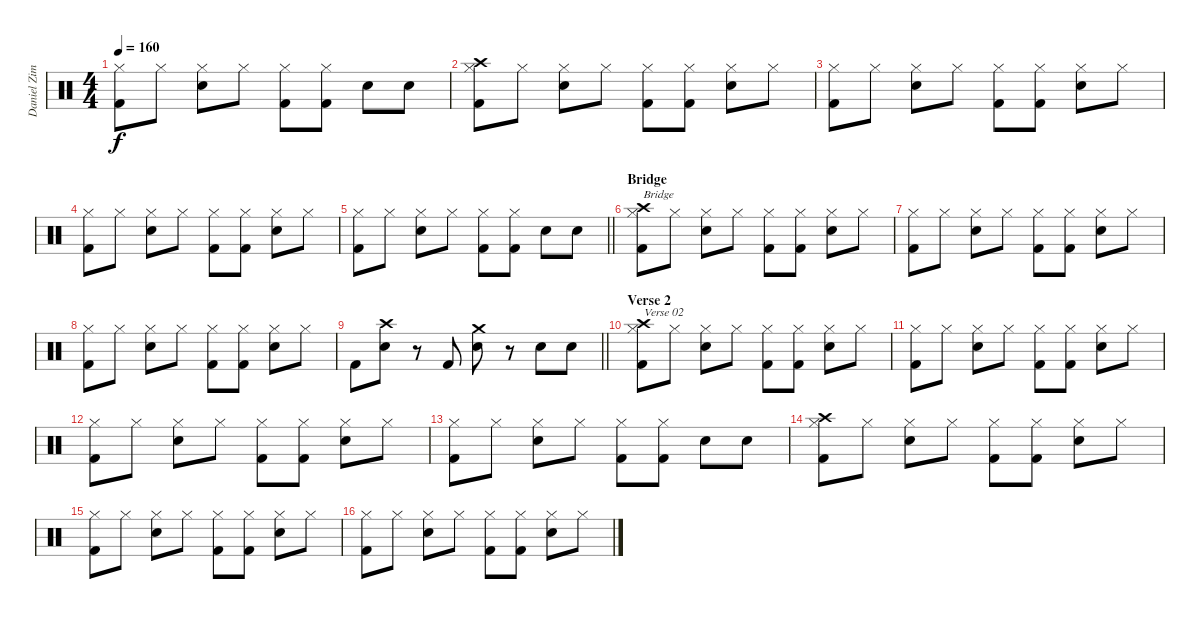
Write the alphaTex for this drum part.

\track ("Daniel Zimmermann" "Daniel Zim") {instrument percussion}
\staff {score}
\articulation defaults
\ts (4 4)
\tempo 160
\clef neutral
\ks c
("Hi-Hat (closed)" "Kick (hit) 2").8{dy f} "Hi-Hat (closed)".8 ("Hi-Hat (closed)" "Snare (hit) 2").8 "Hi-Hat (closed)".8 ("Hi-Hat (closed)" "Kick (hit) 2").8 ("Hi-Hat (closed)" "Kick (hit) 2").8 "Snare (hit) 2".8 "Snare (hit) 2".8 |
("Hi-Hat (closed)" "Kick (hit) 2" "Crash high (hit)").8 "Hi-Hat (closed)".8 ("Hi-Hat (closed)" "Snare (hit) 2").8 "Hi-Hat (closed)".8 ("Hi-Hat (closed)" "Kick (hit) 2").8 ("Hi-Hat (closed)" "Kick (hit) 2").8 ("Hi-Hat (closed)" "Snare (hit) 2").8 "Hi-Hat (closed)".8 |
("Hi-Hat (closed)" "Kick (hit) 2").8 "Hi-Hat (closed)".8 ("Hi-Hat (closed)" "Snare (hit) 2").8 "Hi-Hat (closed)".8 ("Hi-Hat (closed)" "Kick (hit) 2").8 ("Hi-Hat (closed)" "Kick (hit) 2").8 ("Hi-Hat (closed)" "Snare (hit) 2").8 "Hi-Hat (closed)".8 |
("Hi-Hat (closed)" "Kick (hit) 2").8 "Hi-Hat (closed)".8 ("Hi-Hat (closed)" "Snare (hit) 2").8 "Hi-Hat (closed)".8 ("Hi-Hat (closed)" "Kick (hit) 2").8 ("Hi-Hat (closed)" "Kick (hit) 2").8 ("Hi-Hat (closed)" "Snare (hit) 2").8 "Hi-Hat (closed)".8 |
\barLineRight lightlight
("Hi-Hat (closed)" "Kick (hit) 2").8 "Hi-Hat (closed)".8 ("Hi-Hat (closed)" "Snare (hit) 2").8 "Hi-Hat (closed)".8 ("Hi-Hat (closed)" "Kick (hit) 2").8 ("Hi-Hat (closed)" "Kick (hit) 2").8 "Snare (hit) 2".8 "Snare (hit) 2".8 |
\section ("" "Bridge")
("Hi-Hat (closed)" "Kick (hit) 2" "Crash high (hit)").8{txt "Bridge"} "Hi-Hat (closed)".8 ("Hi-Hat (closed)" "Snare (hit) 2").8 "Hi-Hat (closed)".8 ("Hi-Hat (closed)" "Kick (hit) 2").8 ("Hi-Hat (closed)" "Kick (hit) 2").8 ("Hi-Hat (closed)" "Snare (hit) 2").8 "Hi-Hat (closed)".8 |
("Hi-Hat (closed)" "Kick (hit) 2").8 "Hi-Hat (closed)".8 ("Hi-Hat (closed)" "Snare (hit) 2").8 "Hi-Hat (closed)".8 ("Hi-Hat (closed)" "Kick (hit) 2").8 ("Hi-Hat (closed)" "Kick (hit) 2").8 ("Hi-Hat (closed)" "Snare (hit) 2").8 "Hi-Hat (closed)".8 |
("Hi-Hat (closed)" "Kick (hit) 2").8 "Hi-Hat (closed)".8 ("Hi-Hat (closed)" "Snare (hit) 2").8 "Hi-Hat (closed)".8 ("Hi-Hat (closed)" "Kick (hit) 2").8 ("Hi-Hat (closed)" "Kick (hit) 2").8 ("Hi-Hat (closed)" "Snare (hit) 2").8 "Hi-Hat (closed)".8 |
\barLineRight lightlight "Kick (hit) 2".8
("Snare (hit) 2" "Crash high (hit)").8 r.8 "Kick (hit) 2".8 ("Snare (hit) 2" "Crash medium (hit)").8 r.8 "Snare (hit) 2".8 "Snare (hit) 2".8 |
\section ("" "Verse 2")
("Hi-Hat (closed)" "Kick (hit) 2" "Crash high (hit)").8{txt "Verse 02"} "Hi-Hat (closed)".8 ("Hi-Hat (closed)" "Snare (hit) 2").8 "Hi-Hat (closed)".8 ("Hi-Hat (closed)" "Kick (hit) 2").8 ("Hi-Hat (closed)" "Kick (hit) 2").8 ("Hi-Hat (closed)" "Snare (hit) 2").8 "Hi-Hat (closed)".8 |
("Hi-Hat (closed)" "Kick (hit) 2").8 "Hi-Hat (closed)".8 ("Hi-Hat (closed)" "Snare (hit) 2").8 "Hi-Hat (closed)".8 ("Hi-Hat (closed)" "Kick (hit) 2").8 ("Hi-Hat (closed)" "Kick (hit) 2").8 ("Hi-Hat (closed)" "Snare (hit) 2").8 "Hi-Hat (closed)".8 |
("Hi-Hat (closed)" "Kick (hit) 2").8 "Hi-Hat (closed)".8 ("Hi-Hat (closed)" "Snare (hit) 2").8 "Hi-Hat (closed)".8 ("Hi-Hat (closed)" "Kick (hit) 2").8 ("Hi-Hat (closed)" "Kick (hit) 2").8 ("Hi-Hat (closed)" "Snare (hit) 2").8 "Hi-Hat (closed)".8 |
("Hi-Hat (closed)" "Kick (hit) 2").8 "Hi-Hat (closed)".8 ("Hi-Hat (closed)" "Snare (hit) 2").8 "Hi-Hat (closed)".8 ("Hi-Hat (closed)" "Kick (hit) 2").8 ("Hi-Hat (closed)" "Kick (hit) 2").8 "Snare (hit) 2".8 "Snare (hit) 2".8 |
("Hi-Hat (closed)" "Kick (hit) 2" "Crash high (hit)").8 "Hi-Hat (closed)".8 ("Hi-Hat (closed)" "Snare (hit) 2").8 "Hi-Hat (closed)".8 ("Hi-Hat (closed)" "Kick (hit) 2").8 ("Hi-Hat (closed)" "Kick (hit) 2").8 ("Hi-Hat (closed)" "Snare (hit) 2").8 "Hi-Hat (closed)".8 |
("Hi-Hat (closed)" "Kick (hit) 2").8 "Hi-Hat (closed)".8 ("Hi-Hat (closed)" "Snare (hit) 2").8 "Hi-Hat (closed)".8 ("Hi-Hat (closed)" "Kick (hit) 2").8 ("Hi-Hat (closed)" "Kick (hit) 2").8 ("Hi-Hat (closed)" "Snare (hit) 2").8 "Hi-Hat (closed)".8 |
("Hi-Hat (closed)" "Kick (hit) 2").8 "Hi-Hat (closed)".8 ("Hi-Hat (closed)" "Snare (hit) 2").8 "Hi-Hat (closed)".8 ("Hi-Hat (closed)" "Kick (hit) 2").8 ("Hi-Hat (closed)" "Kick (hit) 2").8 ("Hi-Hat (closed)" "Snare (hit) 2").8 "Hi-Hat (closed)".8
